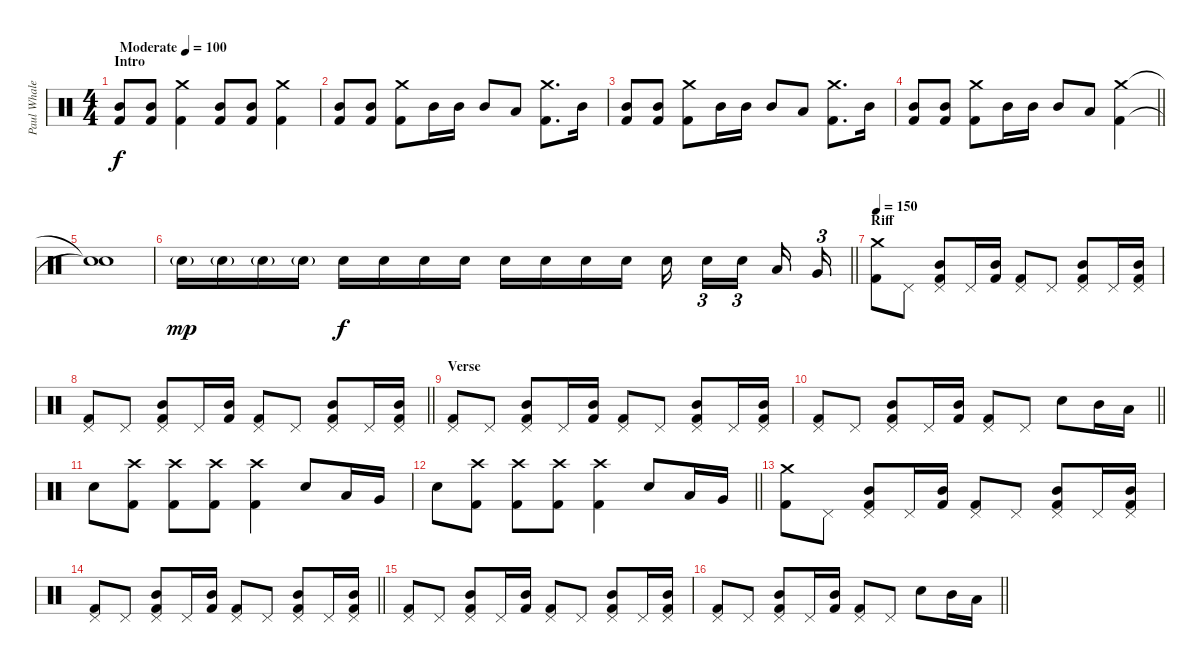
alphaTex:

\track ("Paul Whaley" "Paul Whale") {instrument percussion}
\staff {score}
\articulation defaults
\ts (4 4)
\section ("" "Intro")
\tempo (100 "Moderate")
\clef neutral
\ks c
("Kick (hit) 2" "Mid Tom (hit)").8{dy f} ("Kick (hit) 2" "Mid Tom (hit)").8 ("Kick (hit) 2" "Crash medium (hit)").4 ("Kick (hit) 2" "Mid Tom (hit)").8 ("Kick (hit) 2" "Mid Tom (hit)").8 ("Kick (hit) 2" "Crash medium (hit)").4 |
("Kick (hit) 2" "Mid Tom (hit)").8 ("Kick (hit) 2" "Mid Tom (hit)").8 ("Kick (hit) 2" "Crash medium (hit)").8 "Mid Tom (hit)".16 "Mid Tom (hit)".16 "Mid Tom (hit)".8 "Low Tom (hit)".8 ("Kick (hit) 2" "Crash medium (hit)").8{d} "Mid Tom (hit)".16 |
("Kick (hit) 2" "Mid Tom (hit)").8 ("Kick (hit) 2" "Mid Tom (hit)").8 ("Kick (hit) 2" "Crash medium (hit)").8 "Mid Tom (hit)".16 "Mid Tom (hit)".16 "Mid Tom (hit)".8 "Low Tom (hit)".8 ("Kick (hit) 2" "Crash medium (hit)").8{d} "Mid Tom (hit)".16 |
\barLineRight lightlight
("Kick (hit) 2" "Mid Tom (hit)").8 ("Kick (hit) 2" "Mid Tom (hit)").8 ("Kick (hit) 2" "Crash medium (hit)").8 "Mid Tom (hit)".16 "Mid Tom (hit)".16 "Mid Tom (hit)".8 "Low Tom (hit)".8 ("Kick (hit) 2" "Crash medium (hit)").4 |
("Snare (hit)"{t} "Snare (hit)"{t}).1 |
\barLineRight lightlight "Snare (hit) 2"{g}.16{dy mp} "Snare (hit) 2"{g}.16 "Snare (hit) 2"{g}.16 "Snare (hit) 2"{g}.16 "Snare (hit) 2".16{dy f} "Snare (hit) 2".16 "Snare (hit) 2".16 "Snare (hit) 2".16 "Snare (hit) 2".16 "Snare (hit) 2".16 "Snare (hit) 2".16 "Snare (hit) 2".16 "Snare (hit) 2".16{beam splitsecondary} "Snare (hit) 2".16{tu (3 2)} "Snare (hit) 2".16{tu (3 2) beam splitsecondary} "Low Tom (hit)".16 "Very Low Tom (hit)".16{tu (3 2)}
|
\section ("" "Riff")
\tempo 150
("Kick (hit) 2" "Crash medium (hit)").8 "Pedal Hi-Hat (hit)".8 ("Kick (hit) 2" "Mid Tom (hit)" "Pedal Hi-Hat (hit)").8 "Pedal Hi-Hat (hit)".16 ("Kick (hit) 2" "Mid Tom (hit)").16 ("Kick (hit) 2" "Pedal Hi-Hat (hit)").8 "Pedal Hi-Hat (hit)".8 ("Kick (hit) 2" "Mid Tom (hit)" "Pedal Hi-Hat (hit)").8 "Pedal Hi-Hat (hit)".16 ("Kick (hit) 2" "Mid Tom (hit)" "Pedal Hi-Hat (hit)").16 |
\barLineRight lightlight
("Kick (hit) 2" "Pedal Hi-Hat (hit)").8 "Pedal Hi-Hat (hit)".8 ("Kick (hit) 2" "Mid Tom (hit)" "Pedal Hi-Hat (hit)").8 "Pedal Hi-Hat (hit)".16 ("Kick (hit) 2" "Mid Tom (hit)").16 ("Kick (hit) 2" "Pedal Hi-Hat (hit)").8 "Pedal Hi-Hat (hit)".8 ("Kick (hit) 2" "Mid Tom (hit)" "Pedal Hi-Hat (hit)").8 "Pedal Hi-Hat (hit)".16 ("Kick (hit) 2" "Mid Tom (hit)" "Pedal Hi-Hat (hit)").16 |
\section ("" "Verse")
("Kick (hit) 2" "Pedal Hi-Hat (hit)").8 "Pedal Hi-Hat (hit)".8 ("Kick (hit) 2" "Mid Tom (hit)" "Pedal Hi-Hat (hit)").8 "Pedal Hi-Hat (hit)".16 ("Kick (hit) 2" "Mid Tom (hit)").16 ("Kick (hit) 2" "Pedal Hi-Hat (hit)").8 "Pedal Hi-Hat (hit)".8 ("Kick (hit) 2" "Mid Tom (hit)" "Pedal Hi-Hat (hit)").8 "Pedal Hi-Hat (hit)".16 ("Kick (hit) 2" "Mid Tom (hit)" "Pedal Hi-Hat (hit)").16 |
\barLineRight lightlight
("Kick (hit) 2" "Pedal Hi-Hat (hit)").8 "Pedal Hi-Hat (hit)".8 ("Kick (hit) 2" "Mid Tom (hit)" "Pedal Hi-Hat (hit)").8 "Pedal Hi-Hat (hit)".16 ("Kick (hit) 2" "Mid Tom (hit)").16 ("Kick (hit) 2" "Pedal Hi-Hat (hit)").8 "Pedal Hi-Hat (hit)".8 "Snare (hit) 2".8 "Mid Tom (hit)".16 "Low Tom (hit)".16 |
"Snare (hit) 2".8 ("Kick (hit) 2" "Crash high (hit)").8 ("Kick (hit) 2" "Crash high (hit)").8 ("Kick (hit) 2" "Crash high (hit)").8 ("Kick (hit) 2" "Crash high (hit)").4 "Snare (hit) 2".8 "Low Tom (hit)".16 "Very Low Tom (hit)".16 |
\barLineRight lightlight "Snare (hit) 2".8
("Kick (hit) 2" "Crash high (hit)").8 ("Kick (hit) 2" "Crash high (hit)").8 ("Kick (hit) 2" "Crash high (hit)").8 ("Kick (hit) 2" "Crash high (hit)").4 "Snare (hit) 2".8 "Low Tom (hit)".16 "Very Low Tom (hit)".16 |
("Kick (hit) 2" "Crash medium (hit)").8 "Pedal Hi-Hat (hit)".8 ("Kick (hit) 2" "Mid Tom (hit)" "Pedal Hi-Hat (hit)").8 "Pedal Hi-Hat (hit)".16 ("Kick (hit) 2" "Mid Tom (hit)").16 ("Kick (hit) 2" "Pedal Hi-Hat (hit)").8 "Pedal Hi-Hat (hit)".8 ("Kick (hit) 2" "Mid Tom (hit)" "Pedal Hi-Hat (hit)").8 "Pedal Hi-Hat (hit)".16 ("Kick (hit) 2" "Mid Tom (hit)" "Pedal Hi-Hat (hit)").16 |
\barLineRight lightlight
("Kick (hit) 2" "Pedal Hi-Hat (hit)").8 "Pedal Hi-Hat (hit)".8 ("Kick (hit) 2" "Mid Tom (hit)" "Pedal Hi-Hat (hit)").8 "Pedal Hi-Hat (hit)".16 ("Kick (hit) 2" "Mid Tom (hit)").16 ("Kick (hit) 2" "Pedal Hi-Hat (hit)").8 "Pedal Hi-Hat (hit)".8 ("Kick (hit) 2" "Mid Tom (hit)" "Pedal Hi-Hat (hit)").8 "Pedal Hi-Hat (hit)".16 ("Kick (hit) 2" "Mid Tom (hit)" "Pedal Hi-Hat (hit)").16 |
("Kick (hit) 2" "Pedal Hi-Hat (hit)").8 "Pedal Hi-Hat (hit)".8 ("Kick (hit) 2" "Mid Tom (hit)" "Pedal Hi-Hat (hit)").8 "Pedal Hi-Hat (hit)".16 ("Kick (hit) 2" "Mid Tom (hit)").16 ("Kick (hit) 2" "Pedal Hi-Hat (hit)").8 "Pedal Hi-Hat (hit)".8 ("Kick (hit) 2" "Mid Tom (hit)" "Pedal Hi-Hat (hit)").8 "Pedal Hi-Hat (hit)".16 ("Kick (hit) 2" "Mid Tom (hit)" "Pedal Hi-Hat (hit)").16 |
\barLineRight lightlight
("Kick (hit) 2" "Pedal Hi-Hat (hit)").8 "Pedal Hi-Hat (hit)".8 ("Kick (hit) 2" "Mid Tom (hit)" "Pedal Hi-Hat (hit)").8 "Pedal Hi-Hat (hit)".16 ("Kick (hit) 2" "Mid Tom (hit)").16 ("Kick (hit) 2" "Pedal Hi-Hat (hit)").8 "Pedal Hi-Hat (hit)".8 "Snare (hit) 2".8 "Mid Tom (hit)".16 "Low Tom (hit)".16
